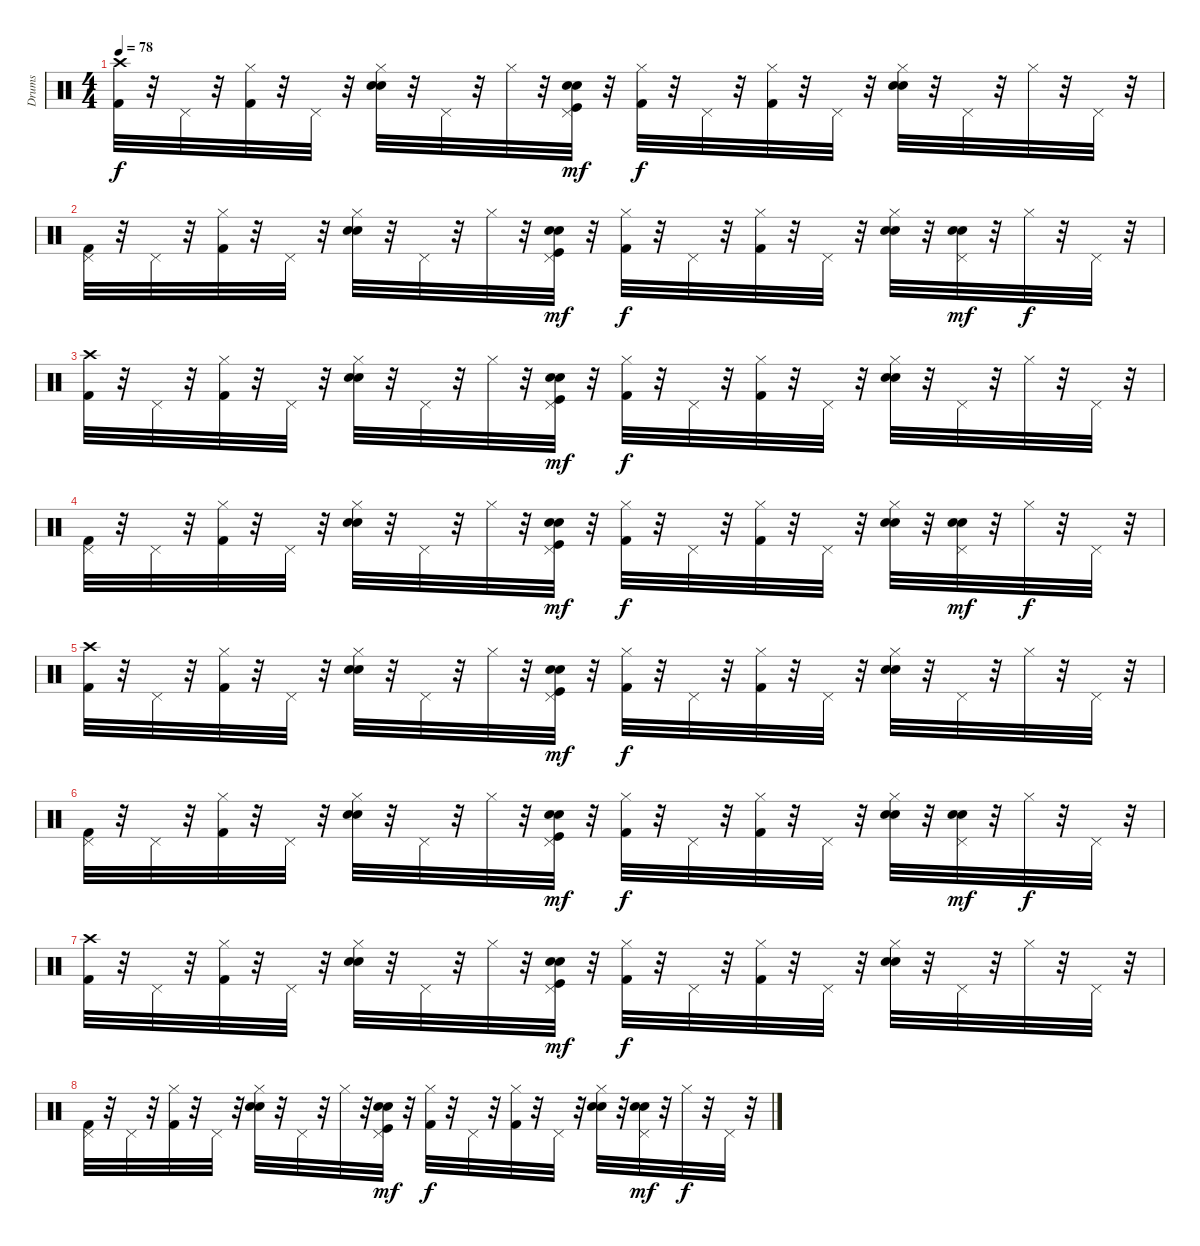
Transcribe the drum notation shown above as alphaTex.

\track ("Drums" "Drums") {instrument percussion}
\staff {score}
\articulation defaults
\ts (4 4)
\tempo 78
\clef neutral
\ks c
("Crash high (hit)" "Kick (hit) 2").32{dy f} r.32 "Pedal Hi-Hat (hit)".32 r.32 ("Hi-Hat (closed)" "Kick (hit) 2").32 r.32 "Pedal Hi-Hat (hit)".32 r.32 ("Hi-Hat (closed)" "Hand Clap (hit)" "Electric Snare (hit)").32 r.32 "Pedal Hi-Hat (hit)".32 r.32 "Hi-Hat (closed)".32 r.32 ("Hand Clap (hit)" "Electric Snare (hit)" "Pedal Hi-Hat (hit)" "Kick (hit)").32{dy mf} r.32 ("Hi-Hat (closed)" "Kick (hit) 2").32{dy f} r.32 "Pedal Hi-Hat (hit)".32 r.32 ("Hi-Hat (closed)" "Kick (hit) 2").32 r.32 "Pedal Hi-Hat (hit)".32 r.32 ("Hi-Hat (closed)" "Hand Clap (hit)" "Electric Snare (hit)").32 r.32 "Pedal Hi-Hat (hit)".32 r.32 "Hi-Hat (closed)".32 r.32 "Pedal Hi-Hat (hit)".32 r.32 |
("Pedal Hi-Hat (hit)" "Kick (hit) 2").32 r.32 "Pedal Hi-Hat (hit)".32 r.32 ("Hi-Hat (closed)" "Kick (hit) 2").32 r.32 "Pedal Hi-Hat (hit)".32 r.32 ("Hi-Hat (closed)" "Hand Clap (hit)" "Electric Snare (hit)").32 r.32 "Pedal Hi-Hat (hit)".32 r.32 "Hi-Hat (closed)".32 r.32 ("Hand Clap (hit)" "Electric Snare (hit)" "Pedal Hi-Hat (hit)" "Kick (hit)").32{dy mf} r.32 ("Hi-Hat (closed)" "Kick (hit) 2").32{dy f} r.32 "Pedal Hi-Hat (hit)".32 r.32 ("Hi-Hat (closed)" "Kick (hit) 2").32 r.32 "Pedal Hi-Hat (hit)".32 r.32 ("Hi-Hat (closed)" "Hand Clap (hit)" "Electric Snare (hit)").32 r.32 ("Hand Clap (hit)" "Electric Snare (hit)" "Pedal Hi-Hat (hit)").32{dy mf} r.32 "Hi-Hat (closed)".32{dy f} r.32 "Pedal Hi-Hat (hit)".32 r.32 |
("Crash high (hit)" "Kick (hit) 2").32 r.32 "Pedal Hi-Hat (hit)".32 r.32 ("Hi-Hat (closed)" "Kick (hit) 2").32 r.32 "Pedal Hi-Hat (hit)".32 r.32 ("Hi-Hat (closed)" "Hand Clap (hit)" "Electric Snare (hit)").32 r.32 "Pedal Hi-Hat (hit)".32 r.32 "Hi-Hat (closed)".32 r.32 ("Hand Clap (hit)" "Electric Snare (hit)" "Pedal Hi-Hat (hit)" "Kick (hit)").32{dy mf} r.32 ("Hi-Hat (closed)" "Kick (hit) 2").32{dy f} r.32 "Pedal Hi-Hat (hit)".32 r.32 ("Hi-Hat (closed)" "Kick (hit) 2").32 r.32 "Pedal Hi-Hat (hit)".32 r.32 ("Hi-Hat (closed)" "Hand Clap (hit)" "Electric Snare (hit)").32 r.32 "Pedal Hi-Hat (hit)".32 r.32 "Hi-Hat (closed)".32 r.32 "Pedal Hi-Hat (hit)".32 r.32 |
("Pedal Hi-Hat (hit)" "Kick (hit) 2").32 r.32 "Pedal Hi-Hat (hit)".32 r.32 ("Hi-Hat (closed)" "Kick (hit) 2").32 r.32 "Pedal Hi-Hat (hit)".32 r.32 ("Hi-Hat (closed)" "Hand Clap (hit)" "Electric Snare (hit)").32 r.32 "Pedal Hi-Hat (hit)".32 r.32 "Hi-Hat (closed)".32 r.32 ("Hand Clap (hit)" "Electric Snare (hit)" "Pedal Hi-Hat (hit)" "Kick (hit)").32{dy mf} r.32 ("Hi-Hat (closed)" "Kick (hit) 2").32{dy f} r.32 "Pedal Hi-Hat (hit)".32 r.32 ("Hi-Hat (closed)" "Kick (hit) 2").32 r.32 "Pedal Hi-Hat (hit)".32 r.32 ("Hi-Hat (closed)" "Hand Clap (hit)" "Electric Snare (hit)").32 r.32 ("Hand Clap (hit)" "Electric Snare (hit)" "Pedal Hi-Hat (hit)").32{dy mf} r.32 "Hi-Hat (closed)".32{dy f} r.32 "Pedal Hi-Hat (hit)".32 r.32 |
("Crash high (hit)" "Kick (hit) 2").32 r.32 "Pedal Hi-Hat (hit)".32 r.32 ("Hi-Hat (closed)" "Kick (hit) 2").32 r.32 "Pedal Hi-Hat (hit)".32 r.32 ("Hi-Hat (closed)" "Hand Clap (hit)" "Electric Snare (hit)").32 r.32 "Pedal Hi-Hat (hit)".32 r.32 "Hi-Hat (closed)".32 r.32 ("Hand Clap (hit)" "Electric Snare (hit)" "Pedal Hi-Hat (hit)" "Kick (hit)").32{dy mf} r.32 ("Hi-Hat (closed)" "Kick (hit) 2").32{dy f} r.32 "Pedal Hi-Hat (hit)".32 r.32 ("Hi-Hat (closed)" "Kick (hit) 2").32 r.32 "Pedal Hi-Hat (hit)".32 r.32 ("Hi-Hat (closed)" "Hand Clap (hit)" "Electric Snare (hit)").32 r.32 "Pedal Hi-Hat (hit)".32 r.32 "Hi-Hat (closed)".32 r.32 "Pedal Hi-Hat (hit)".32 r.32 |
("Pedal Hi-Hat (hit)" "Kick (hit) 2").32 r.32 "Pedal Hi-Hat (hit)".32 r.32 ("Hi-Hat (closed)" "Kick (hit) 2").32 r.32 "Pedal Hi-Hat (hit)".32 r.32 ("Hi-Hat (closed)" "Hand Clap (hit)" "Electric Snare (hit)").32 r.32 "Pedal Hi-Hat (hit)".32 r.32 "Hi-Hat (closed)".32 r.32 ("Hand Clap (hit)" "Electric Snare (hit)" "Pedal Hi-Hat (hit)" "Kick (hit)").32{dy mf} r.32 ("Hi-Hat (closed)" "Kick (hit) 2").32{dy f} r.32 "Pedal Hi-Hat (hit)".32 r.32 ("Hi-Hat (closed)" "Kick (hit) 2").32 r.32 "Pedal Hi-Hat (hit)".32 r.32 ("Hi-Hat (closed)" "Hand Clap (hit)" "Electric Snare (hit)").32 r.32 ("Hand Clap (hit)" "Electric Snare (hit)" "Pedal Hi-Hat (hit)").32{dy mf} r.32 "Hi-Hat (closed)".32{dy f} r.32 "Pedal Hi-Hat (hit)".32 r.32 |
("Crash high (hit)" "Kick (hit) 2").32 r.32 "Pedal Hi-Hat (hit)".32 r.32 ("Hi-Hat (closed)" "Kick (hit) 2").32 r.32 "Pedal Hi-Hat (hit)".32 r.32 ("Hi-Hat (closed)" "Hand Clap (hit)" "Electric Snare (hit)").32 r.32 "Pedal Hi-Hat (hit)".32 r.32 "Hi-Hat (closed)".32 r.32 ("Hand Clap (hit)" "Electric Snare (hit)" "Pedal Hi-Hat (hit)" "Kick (hit)").32{dy mf} r.32 ("Hi-Hat (closed)" "Kick (hit) 2").32{dy f} r.32 "Pedal Hi-Hat (hit)".32 r.32 ("Hi-Hat (closed)" "Kick (hit) 2").32 r.32 "Pedal Hi-Hat (hit)".32 r.32 ("Hi-Hat (closed)" "Hand Clap (hit)" "Electric Snare (hit)").32 r.32 "Pedal Hi-Hat (hit)".32 r.32 "Hi-Hat (closed)".32 r.32 "Pedal Hi-Hat (hit)".32 r.32 |
("Pedal Hi-Hat (hit)" "Kick (hit) 2").32 r.32 "Pedal Hi-Hat (hit)".32 r.32 ("Hi-Hat (closed)" "Kick (hit) 2").32 r.32 "Pedal Hi-Hat (hit)".32 r.32 ("Hi-Hat (closed)" "Hand Clap (hit)" "Electric Snare (hit)").32 r.32 "Pedal Hi-Hat (hit)".32 r.32 "Hi-Hat (closed)".32 r.32 ("Hand Clap (hit)" "Electric Snare (hit)" "Pedal Hi-Hat (hit)" "Kick (hit)").32{dy mf} r.32 ("Hi-Hat (closed)" "Kick (hit) 2").32{dy f} r.32 "Pedal Hi-Hat (hit)".32 r.32 ("Hi-Hat (closed)" "Kick (hit) 2").32 r.32 "Pedal Hi-Hat (hit)".32 r.32 ("Hi-Hat (closed)" "Hand Clap (hit)" "Electric Snare (hit)").32 r.32 ("Hand Clap (hit)" "Electric Snare (hit)" "Pedal Hi-Hat (hit)").32{dy mf} r.32 "Hi-Hat (closed)".32{dy f} r.32 "Pedal Hi-Hat (hit)".32 r.32
